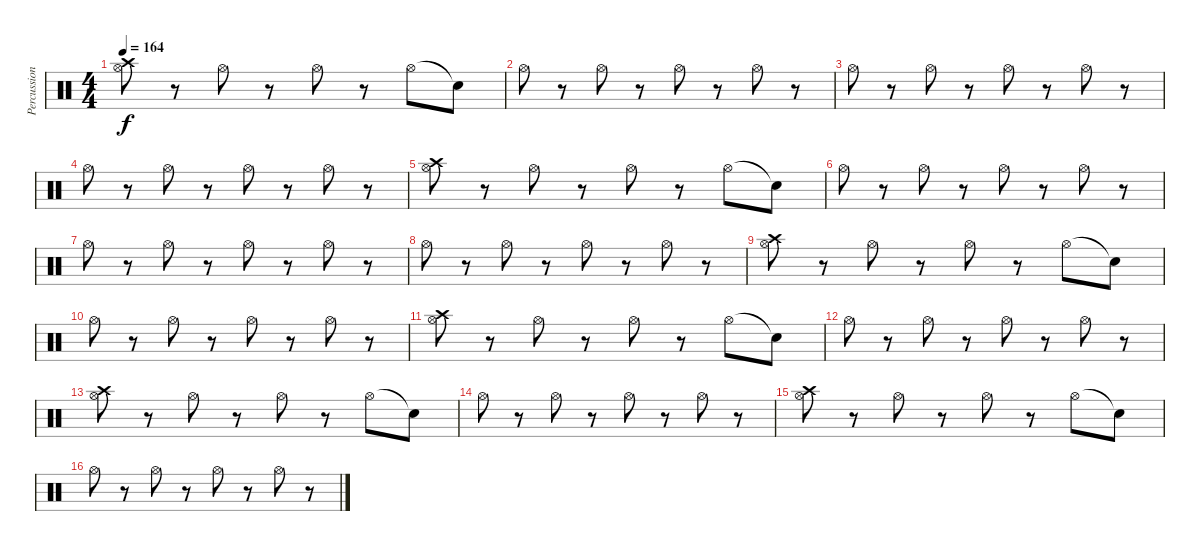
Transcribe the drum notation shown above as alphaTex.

\track ("Percussion" "Percussion") {instrument percussion}
\staff {score}
\articulation defaults
\ts (4 4)
\tempo 164
\clef neutral
\ks c
("Hi-Hat (open)" "Crash high (hit)").8{dy f} r.8 "Hi-Hat (open)".8 r.8 "Hi-Hat (open)".8 r.8 "Hi-Hat (open)".8 "Snare (hit)"{t}.8 |
"Hi-Hat (open)".8 r.8 "Hi-Hat (open)".8 r.8 "Hi-Hat (open)".8 r.8 "Hi-Hat (open)".8 r.8 |
"Hi-Hat (open)".8 r.8 "Hi-Hat (open)".8 r.8 "Hi-Hat (open)".8 r.8 "Hi-Hat (open)".8 r.8 |
"Hi-Hat (open)".8 r.8 "Hi-Hat (open)".8 r.8 "Hi-Hat (open)".8 r.8 "Hi-Hat (open)".8 r.8 |
("Hi-Hat (open)" "Crash high (hit)").8 r.8 "Hi-Hat (open)".8 r.8 "Hi-Hat (open)".8 r.8 "Hi-Hat (open)".8 "Snare (hit)"{t}.8 |
"Hi-Hat (open)".8 r.8 "Hi-Hat (open)".8 r.8 "Hi-Hat (open)".8 r.8 "Hi-Hat (open)".8 r.8 |
"Hi-Hat (open)".8 r.8 "Hi-Hat (open)".8 r.8 "Hi-Hat (open)".8 r.8 "Hi-Hat (open)".8 r.8 |
"Hi-Hat (open)".8 r.8 "Hi-Hat (open)".8 r.8 "Hi-Hat (open)".8 r.8 "Hi-Hat (open)".8 r.8 |
("Hi-Hat (open)" "Crash high (hit)").8 r.8 "Hi-Hat (open)".8 r.8 "Hi-Hat (open)".8 r.8 "Hi-Hat (open)".8 "Snare (hit)"{t}.8 |
"Hi-Hat (open)".8 r.8 "Hi-Hat (open)".8 r.8 "Hi-Hat (open)".8 r.8 "Hi-Hat (open)".8 r.8 |
("Hi-Hat (open)" "Crash high (hit)").8 r.8 "Hi-Hat (open)".8 r.8 "Hi-Hat (open)".8 r.8 "Hi-Hat (open)".8 "Snare (hit)"{t}.8 |
"Hi-Hat (open)".8 r.8 "Hi-Hat (open)".8 r.8 "Hi-Hat (open)".8 r.8 "Hi-Hat (open)".8 r.8 |
("Hi-Hat (open)" "Crash high (hit)").8 r.8 "Hi-Hat (open)".8 r.8 "Hi-Hat (open)".8 r.8 "Hi-Hat (open)".8 "Snare (hit)"{t}.8 |
"Hi-Hat (open)".8 r.8 "Hi-Hat (open)".8 r.8 "Hi-Hat (open)".8 r.8 "Hi-Hat (open)".8 r.8 |
("Hi-Hat (open)" "Crash high (hit)").8 r.8 "Hi-Hat (open)".8 r.8 "Hi-Hat (open)".8 r.8 "Hi-Hat (open)".8 "Snare (hit)"{t}.8 |
"Hi-Hat (open)".8 r.8 "Hi-Hat (open)".8 r.8 "Hi-Hat (open)".8 r.8 "Hi-Hat (open)".8 r.8
